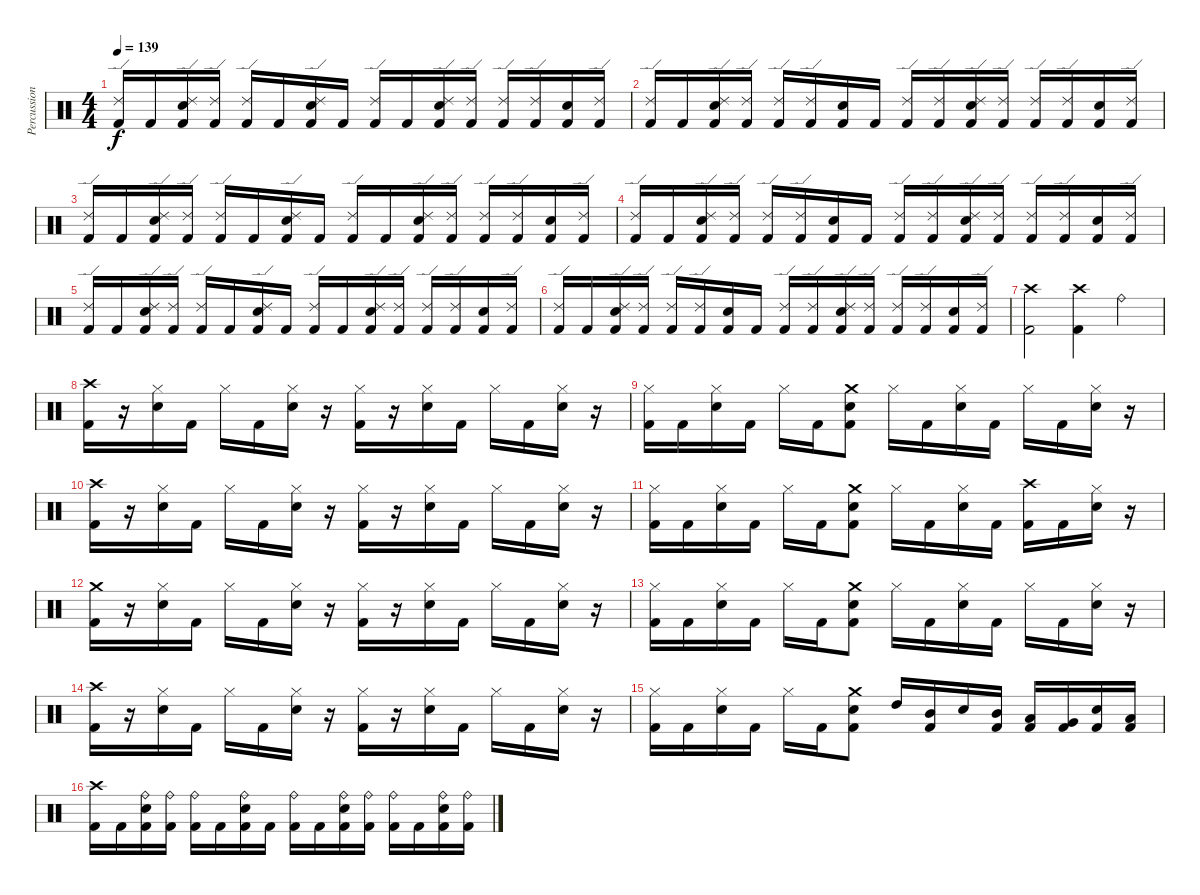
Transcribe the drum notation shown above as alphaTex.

\track ("Percussion" "Percussion") {instrument percussion}
\staff {score}
\articulation defaults
\ts (4 4)
\tempo 139
\clef neutral
\ks c
("Ride (edge) 2" "Kick (hit) 2").16{dy f} "Kick (hit) 2".16 ("Ride (edge) 2" "Electric Snare (hit)" "Kick (hit) 2").16 ("Ride (edge) 2" "Kick (hit) 2").16 ("Ride (edge) 2" "Kick (hit) 2").16 "Kick (hit) 2".16 ("Ride (edge) 2" "Electric Snare (hit)" "Kick (hit) 2").16 "Kick (hit) 2".16 ("Ride (edge) 2" "Kick (hit) 2").16 "Kick (hit) 2".16 ("Ride (edge) 2" "Electric Snare (hit)" "Kick (hit) 2").16 ("Ride (edge) 2" "Kick (hit) 2").16 ("Ride (edge) 2" "Kick (hit) 2").16 ("Ride (edge) 2" "Kick (hit) 2").16 ("Electric Snare (hit)" "Kick (hit) 2").16 ("Ride (edge) 2" "Kick (hit) 2").16 |
("Ride (edge) 2" "Kick (hit) 2").16 "Kick (hit) 2".16 ("Ride (edge) 2" "Electric Snare (hit)" "Kick (hit) 2").16 ("Ride (edge) 2" "Kick (hit) 2").16 ("Ride (edge) 2" "Kick (hit) 2").16 ("Ride (edge) 2" "Kick (hit) 2").16 ("Electric Snare (hit)" "Kick (hit) 2").16 "Kick (hit) 2".16 ("Ride (edge) 2" "Kick (hit) 2").16 ("Ride (edge) 2" "Kick (hit) 2").16 ("Ride (edge) 2" "Electric Snare (hit)" "Kick (hit) 2").16 ("Ride (edge) 2" "Kick (hit) 2").16 ("Ride (edge) 2" "Kick (hit) 2").16 ("Ride (edge) 2" "Kick (hit) 2").16 ("Electric Snare (hit)" "Kick (hit) 2").16 ("Ride (edge) 2" "Kick (hit) 2").16 |
("Ride (edge) 2" "Kick (hit) 2").16 "Kick (hit) 2".16 ("Ride (edge) 2" "Electric Snare (hit)" "Kick (hit) 2").16 ("Ride (edge) 2" "Kick (hit) 2").16 ("Ride (edge) 2" "Kick (hit) 2").16 "Kick (hit) 2".16 ("Ride (edge) 2" "Electric Snare (hit)" "Kick (hit) 2").16 "Kick (hit) 2".16 ("Ride (edge) 2" "Kick (hit) 2").16 "Kick (hit) 2".16 ("Ride (edge) 2" "Electric Snare (hit)" "Kick (hit) 2").16 ("Ride (edge) 2" "Kick (hit) 2").16 ("Ride (edge) 2" "Kick (hit) 2").16 ("Ride (edge) 2" "Kick (hit) 2").16 ("Electric Snare (hit)" "Kick (hit) 2").16 ("Ride (edge) 2" "Kick (hit) 2").16 |
("Ride (edge) 2" "Kick (hit) 2").16 "Kick (hit) 2".16 ("Ride (edge) 2" "Electric Snare (hit)" "Kick (hit) 2").16 ("Ride (edge) 2" "Kick (hit) 2").16 ("Ride (edge) 2" "Kick (hit) 2").16 ("Ride (edge) 2" "Kick (hit) 2").16 ("Electric Snare (hit)" "Kick (hit) 2").16 "Kick (hit) 2".16 ("Ride (edge) 2" "Kick (hit) 2").16 ("Ride (edge) 2" "Kick (hit) 2").16 ("Ride (edge) 2" "Electric Snare (hit)" "Kick (hit) 2").16 ("Ride (edge) 2" "Kick (hit) 2").16 ("Ride (edge) 2" "Kick (hit) 2").16 ("Ride (edge) 2" "Kick (hit) 2").16 ("Electric Snare (hit)" "Kick (hit) 2").16 ("Ride (edge) 2" "Kick (hit) 2").16 |
("Ride (edge) 2" "Kick (hit) 2").16 "Kick (hit) 2".16 ("Ride (edge) 2" "Electric Snare (hit)" "Kick (hit) 2").16 ("Ride (edge) 2" "Kick (hit) 2").16 ("Ride (edge) 2" "Kick (hit) 2").16 "Kick (hit) 2".16 ("Ride (edge) 2" "Electric Snare (hit)" "Kick (hit) 2").16 "Kick (hit) 2".16 ("Ride (edge) 2" "Kick (hit) 2").16 "Kick (hit) 2".16 ("Ride (edge) 2" "Electric Snare (hit)" "Kick (hit) 2").16 ("Ride (edge) 2" "Kick (hit) 2").16 ("Ride (edge) 2" "Kick (hit) 2").16 ("Ride (edge) 2" "Kick (hit) 2").16 ("Electric Snare (hit)" "Kick (hit) 2").16 ("Ride (edge) 2" "Kick (hit) 2").16 |
("Ride (edge) 2" "Kick (hit) 2").16 "Kick (hit) 2".16 ("Ride (edge) 2" "Electric Snare (hit)" "Kick (hit) 2").16 ("Ride (edge) 2" "Kick (hit) 2").16 ("Ride (edge) 2" "Kick (hit) 2").16 ("Ride (edge) 2" "Kick (hit) 2").16 ("Electric Snare (hit)" "Kick (hit) 2").16 "Kick (hit) 2".16 ("Ride (edge) 2" "Kick (hit) 2").16 ("Ride (edge) 2" "Kick (hit) 2").16 ("Ride (edge) 2" "Electric Snare (hit)" "Kick (hit) 2").16 ("Ride (edge) 2" "Kick (hit) 2").16 ("Ride (edge) 2" "Kick (hit) 2").16 ("Ride (edge) 2" "Kick (hit) 2").16 ("Electric Snare (hit)" "Kick (hit) 2").16 ("Ride (edge) 2" "Kick (hit) 2").16 |
("Crash high (hit)" "Kick (hit) 2").2 ("Crash high (hit)" "Kick (hit) 2").4 "Ride (bell)".4 |
("Crash high (hit)" "Kick (hit) 2").16 r.16 ("Hi-Hat (closed)" "Electric Snare (hit)").16 "Kick (hit) 2".16 "Hi-Hat (closed)".16 "Kick (hit) 2".16 ("Hi-Hat (closed)" "Electric Snare (hit)").16 r.16 ("Hi-Hat (closed)" "Kick (hit) 2").16 r.16 ("Hi-Hat (closed)" "Electric Snare (hit)").16 "Kick (hit) 2".16 "Hi-Hat (closed)".16 "Kick (hit) 2".16 ("Hi-Hat (closed)" "Electric Snare (hit)").16 r.16 |
("Hi-Hat (closed)" "Kick (hit) 2").16 "Kick (hit) 2".16 ("Hi-Hat (closed)" "Electric Snare (hit)").16 "Kick (hit) 2".16 "Hi-Hat (closed)".16 "Kick (hit) 2".16 ("Crash medium (hit)" "Electric Snare (hit)" "Kick (hit) 2").8 "Hi-Hat (closed)".16 "Kick (hit) 2".16 ("Hi-Hat (closed)" "Electric Snare (hit)").16 "Kick (hit) 2".16 "Hi-Hat (closed)".16 "Kick (hit) 2".16 ("Hi-Hat (closed)" "Electric Snare (hit)").16 r.16 |
("Crash high (hit)" "Kick (hit) 2").16 r.16 ("Hi-Hat (closed)" "Electric Snare (hit)").16 "Kick (hit) 2".16 "Hi-Hat (closed)".16 "Kick (hit) 2".16 ("Hi-Hat (closed)" "Electric Snare (hit)").16 r.16 ("Hi-Hat (closed)" "Kick (hit) 2").16 r.16 ("Hi-Hat (closed)" "Electric Snare (hit)").16 "Kick (hit) 2".16 "Hi-Hat (closed)".16 "Kick (hit) 2".16 ("Hi-Hat (closed)" "Electric Snare (hit)").16 r.16 |
("Hi-Hat (closed)" "Kick (hit) 2").16 "Kick (hit) 2".16 ("Hi-Hat (closed)" "Electric Snare (hit)").16 "Kick (hit) 2".16 "Hi-Hat (closed)".16 "Kick (hit) 2".16 ("Crash medium (hit)" "Electric Snare (hit)" "Kick (hit) 2").8 "Hi-Hat (closed)".16 "Kick (hit) 2".16 ("Hi-Hat (closed)" "Electric Snare (hit)").16 "Kick (hit) 2".16 ("Crash high (hit)" "Kick (hit) 2").16 "Kick (hit) 2".16 ("Hi-Hat (closed)" "Electric Snare (hit)").16 r.16 |
("Crash medium (hit)" "Kick (hit) 2").16 r.16 ("Hi-Hat (closed)" "Electric Snare (hit)").16 "Kick (hit) 2".16 "Hi-Hat (closed)".16 "Kick (hit) 2".16 ("Hi-Hat (closed)" "Electric Snare (hit)").16 r.16 ("Hi-Hat (closed)" "Kick (hit) 2").16 r.16 ("Hi-Hat (closed)" "Electric Snare (hit)").16 "Kick (hit) 2".16 "Hi-Hat (closed)".16 "Kick (hit) 2".16 ("Hi-Hat (closed)" "Electric Snare (hit)").16 r.16 |
("Hi-Hat (closed)" "Kick (hit) 2").16 "Kick (hit) 2".16 ("Hi-Hat (closed)" "Electric Snare (hit)").16 "Kick (hit) 2".16 "Hi-Hat (closed)".16 "Kick (hit) 2".16 ("Crash medium (hit)" "Electric Snare (hit)" "Kick (hit) 2").8 "Hi-Hat (closed)".16 "Kick (hit) 2".16 ("Hi-Hat (closed)" "Electric Snare (hit)").16 "Kick (hit) 2".16 "Hi-Hat (closed)".16 "Kick (hit) 2".16 ("Hi-Hat (closed)" "Electric Snare (hit)").16 r.16 |
("Crash high (hit)" "Kick (hit) 2").16 r.16 ("Hi-Hat (closed)" "Electric Snare (hit)").16 "Kick (hit) 2".16 "Hi-Hat (closed)".16 "Kick (hit) 2".16 ("Hi-Hat (closed)" "Electric Snare (hit)").16 r.16 ("Hi-Hat (closed)" "Kick (hit) 2").16 r.16 ("Hi-Hat (closed)" "Electric Snare (hit)").16 "Kick (hit) 2".16 "Hi-Hat (closed)".16 "Kick (hit) 2".16 ("Hi-Hat (closed)" "Electric Snare (hit)").16 r.16 |
("Hi-Hat (closed)" "Kick (hit) 2").16 "Kick (hit) 2".16 ("Hi-Hat (closed)" "Electric Snare (hit)").16 "Kick (hit) 2".16 "Hi-Hat (closed)".16 "Kick (hit) 2".16 ("Crash medium (hit)" "Electric Snare (hit)" "Kick (hit) 2").8 "High Tom (hit)".16 ("Mid Tom (hit)" "Kick (hit) 2").16 "Electric Snare (hit)".16 ("Mid Tom (hit)" "Kick (hit) 2").16 ("Low Tom (hit)" "Kick (hit) 2").16 ("Very Low Tom (hit)" "Kick (hit) 2").16 ("Electric Snare (hit)" "Kick (hit) 2").16 ("Low Tom (hit)" "Kick (hit) 2").16 |
("Crash high (hit)" "Kick (hit) 2").16 "Kick (hit) 2".16 ("Ride (bell)" "Electric Snare (hit)" "Kick (hit) 2").16 ("Ride (bell)" "Kick (hit) 2").16 ("Ride (bell)" "Kick (hit) 2").16 "Kick (hit) 2".16 ("Ride (bell)" "Electric Snare (hit)" "Kick (hit) 2").16 "Kick (hit) 2".16 ("Ride (bell)" "Kick (hit) 2").16 "Kick (hit) 2".16 ("Ride (bell)" "Electric Snare (hit)" "Kick (hit) 2").16 ("Ride (bell)" "Kick (hit) 2").16 ("Ride (bell)" "Kick (hit) 2").16 "Kick (hit) 2".16 ("Ride (bell)" "Electric Snare (hit)" "Kick (hit) 2").16 ("Ride (bell)" "Kick (hit) 2").16
